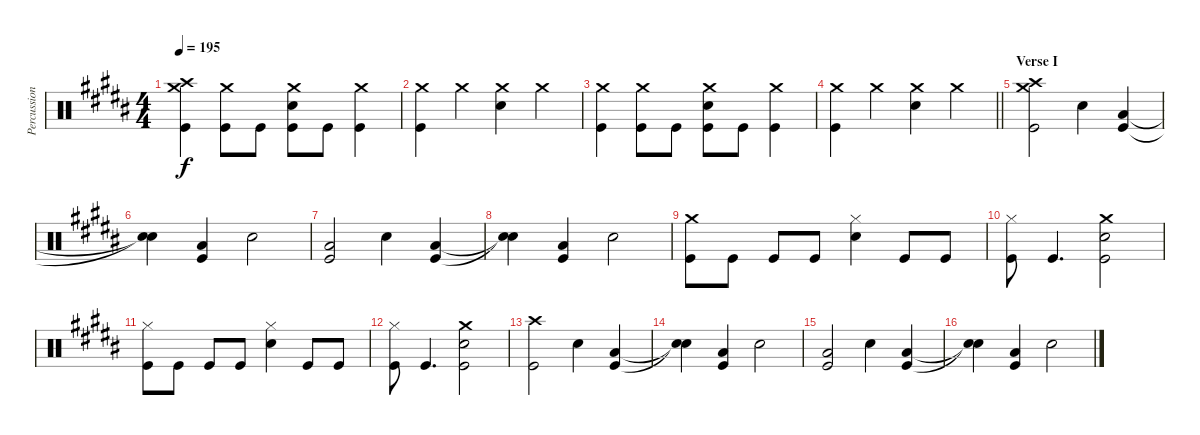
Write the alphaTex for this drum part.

\track ("Percussion" "Percussion") {instrument percussion}
\staff {score}
\articulation defaults
\ts (4 4)
\tempo 195
\clef neutral
\ks b
("Crash high (hit)" "Crash medium (hit)" "Kick (hit)").4{dy f} ("Crash medium (hit)" "Kick (hit)").8 "Kick (hit)".8 ("Crash medium (hit)" "Electric Snare (hit)" "Kick (hit)").8 "Kick (hit)".8 ("Crash medium (hit)" "Kick (hit)").4 |
("Crash medium (hit)" "Kick (hit)").4 "Crash medium (hit)".4 ("Crash medium (hit)" "Electric Snare (hit)").4 "Crash medium (hit)".4 |
("Crash medium (hit)" "Kick (hit)").4 ("Crash medium (hit)" "Kick (hit)").8 "Kick (hit)".8 ("Crash medium (hit)" "Electric Snare (hit)" "Kick (hit)").8 "Kick (hit)".8 ("Crash medium (hit)" "Kick (hit)").4 |
\barLineRight lightlight
("Crash medium (hit)" "Kick (hit)").4 "Crash medium (hit)".4 ("Crash medium (hit)" "Electric Snare (hit)").4 "Crash medium (hit)".4 |
\section ("" "Verse I")
("Crash high (hit)" "Crash medium (hit)" "Kick (hit)").2 "Electric Snare (hit)".4 ("Low Floor Tom (hit)" "Kick (hit)").4 |
("Snare (hit)"{t} "Snare (hit)"{t}).4 ("Low Floor Tom (hit)" "Kick (hit)").4 "Electric Snare (hit)".2 |
("Low Floor Tom (hit)" "Kick (hit)").2 "Electric Snare (hit)".4 ("Low Floor Tom (hit)" "Kick (hit)").4 |
("Snare (hit)"{t} "Snare (hit)"{t}).4 ("Low Floor Tom (hit)" "Kick (hit)").4 "Electric Snare (hit)".2 |
("Crash medium (hit)" "Kick (hit)").8 "Kick (hit)".8 "Kick (hit)".8 "Kick (hit)".8 ("Hi-Hat (closed)" "Electric Snare (hit)").4 "Kick (hit)".8 "Kick (hit)".8 |
("Hi-Hat (closed)" "Kick (hit)").8 "Kick (hit)".4{d} ("Crash medium (hit)" "Electric Snare (hit)" "Kick (hit)").2 |
("Hi-Hat (closed)" "Kick (hit)").8 "Kick (hit)".8 "Kick (hit)".8 "Kick (hit)".8 ("Hi-Hat (closed)" "Electric Snare (hit)").4 "Kick (hit)".8 "Kick (hit)".8 |
("Hi-Hat (closed)" "Kick (hit)").8 "Kick (hit)".4{d} ("Crash medium (hit)" "Electric Snare (hit)" "Kick (hit)").2 |
("Crash high (hit)" "Kick (hit)").2 "Electric Snare (hit)".4 ("Low Floor Tom (hit)" "Kick (hit)").4 |
("Snare (hit)"{t} "Snare (hit)"{t}).4 ("Low Floor Tom (hit)" "Kick (hit)").4 "Electric Snare (hit)".2 |
("Low Floor Tom (hit)" "Kick (hit)").2 "Electric Snare (hit)".4 ("Low Floor Tom (hit)" "Kick (hit)").4 |
("Snare (hit)"{t} "Snare (hit)"{t}).4 ("Low Floor Tom (hit)" "Kick (hit)").4 "Electric Snare (hit)".2
